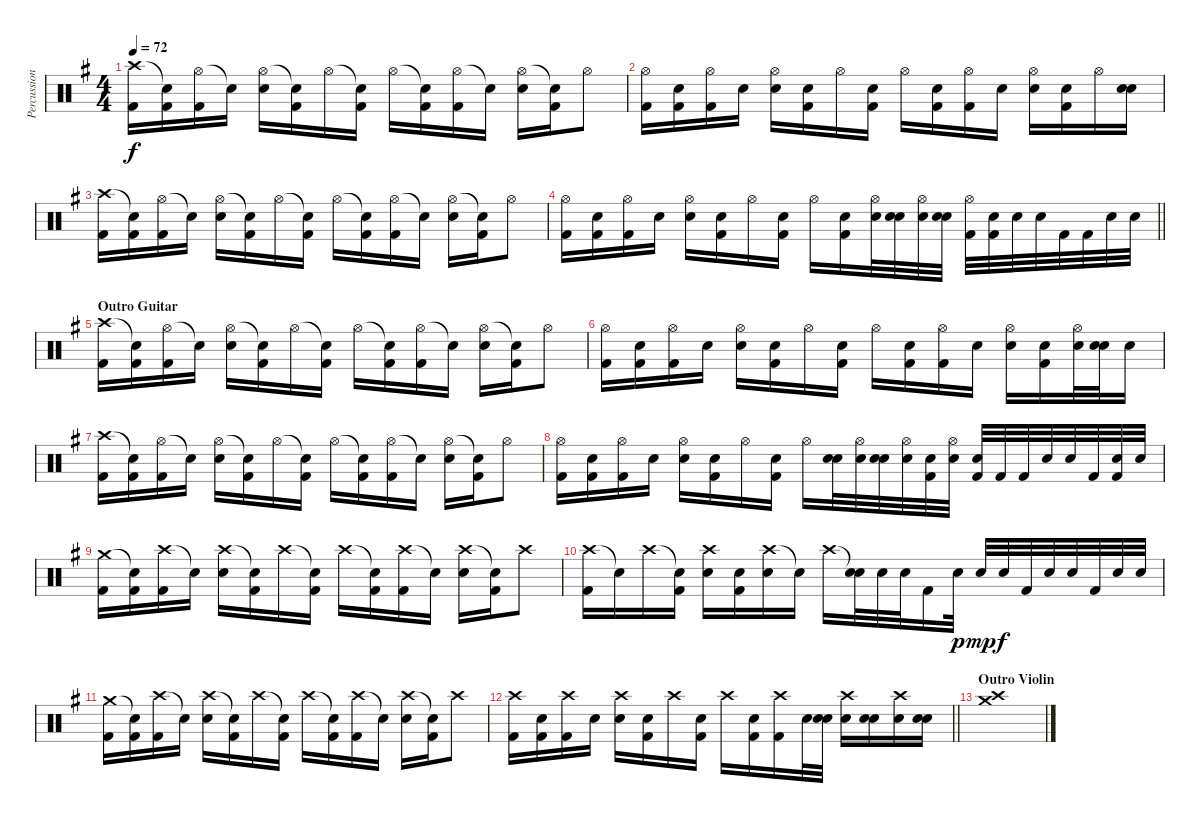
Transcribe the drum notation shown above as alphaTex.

\track ("Percussion" "Percussion") {instrument percussion}
\staff {score}
\articulation defaults
\ts (4 4)
\tempo 72
\clef neutral
\ks g
("Crash high (hit)" "Kick (hit) 2").16{dy f} ("Snare (hit)"{t} "Kick (hit) 2").16 ("Hi-Hat (open)" "Kick (hit) 2").16 "Snare (hit)"{t}.16 ("Hi-Hat (open)" "Electric Snare (hit)").16 ("Snare (hit)"{t} "Kick (hit) 2").16 "Hi-Hat (open)".16 ("Snare (hit)"{t} "Kick (hit) 2").16 "Hi-Hat (open)".16 ("Snare (hit)"{t} "Kick (hit) 2").16 ("Hi-Hat (open)" "Kick (hit) 2").16 "Snare (hit)"{t}.16 ("Hi-Hat (open)" "Electric Snare (hit)").16 ("Snare (hit)"{t} "Kick (hit) 2").16 "Hi-Hat (open)".8 |
("Hi-Hat (open)" "Kick (hit) 2").16 ("Snare (hit)" "Kick (hit) 2").16 ("Hi-Hat (open)" "Kick (hit) 2").16 "Snare (hit)".16 ("Hi-Hat (open)" "Electric Snare (hit)").16 ("Snare (hit)" "Kick (hit) 2").16 "Hi-Hat (open)".16 ("Snare (hit)" "Kick (hit) 2").16 "Hi-Hat (open)".16 ("Snare (hit)" "Kick (hit) 2").16 ("Hi-Hat (open)" "Kick (hit) 2").16 "Snare (hit)".16 ("Hi-Hat (open)" "Electric Snare (hit)").16 ("Snare (hit)" "Kick (hit) 2").16 "Hi-Hat (open)".16 ("Snare (hit)" "Electric Snare (hit)").16 |
("Crash high (hit)" "Kick (hit) 2").16 ("Snare (hit)"{t} "Kick (hit) 2").16 ("Hi-Hat (open)" "Kick (hit) 2").16 "Snare (hit)"{t}.16 ("Hi-Hat (open)" "Electric Snare (hit)").16 ("Snare (hit)"{t} "Kick (hit) 2").16 "Hi-Hat (open)".16 ("Snare (hit)"{t} "Kick (hit) 2").16 "Hi-Hat (open)".16 ("Snare (hit)"{t} "Kick (hit) 2").16 ("Hi-Hat (open)" "Kick (hit) 2").16 "Snare (hit)"{t}.16 ("Hi-Hat (open)" "Electric Snare (hit)").16 ("Snare (hit)"{t} "Kick (hit) 2").16 "Hi-Hat (open)".8 |
\barLineRight lightlight
("Hi-Hat (open)" "Kick (hit) 2").16 ("Snare (hit)" "Kick (hit) 2").16 ("Hi-Hat (open)" "Kick (hit) 2").16 "Snare (hit)".16 ("Hi-Hat (open)" "Electric Snare (hit)").16 ("Snare (hit)" "Kick (hit) 2").16 "Hi-Hat (open)".16 ("Snare (hit)" "Kick (hit) 2").16 "Hi-Hat (open)".16 ("Snare (hit)" "Kick (hit) 2").16 ("Hi-Hat (open)" "Electric Snare (hit)").32 ("Snare (hit)" "Electric Snare (hit)").32 ("Hi-Hat (open)" "Electric Snare (hit)").32 ("Snare (hit)" "Electric Snare (hit)").32 ("Hi-Hat (open)" "Kick (hit) 2").32 ("Snare (hit)" "Kick (hit) 2").32 "Electric Snare (hit)".32 "Electric Snare (hit)".32 "Kick (hit) 2".32 "Kick (hit) 2".32 "Electric Snare (hit)".32 "Electric Snare (hit)".32 |
\section ("" "Outro Guitar")
("Crash high (hit)" "Kick (hit) 2").16 ("Snare (hit)"{t} "Kick (hit) 2").16 ("Hi-Hat (open)" "Kick (hit) 2").16 "Snare (hit)"{t}.16 ("Hi-Hat (open)" "Electric Snare (hit)").16 ("Snare (hit)"{t} "Kick (hit) 2").16 "Hi-Hat (open)".16 ("Snare (hit)"{t} "Kick (hit) 2").16 "Hi-Hat (open)".16 ("Snare (hit)"{t} "Kick (hit) 2").16 ("Hi-Hat (open)" "Kick (hit) 2").16 "Snare (hit)"{t}.16 ("Hi-Hat (open)" "Electric Snare (hit)").16 ("Snare (hit)"{t} "Kick (hit) 2").16 "Hi-Hat (open)".8 |
("Hi-Hat (open)" "Kick (hit) 2").16 ("Snare (hit)" "Kick (hit) 2").16 ("Hi-Hat (open)" "Kick (hit) 2").16 "Snare (hit)".16 ("Hi-Hat (open)" "Electric Snare (hit)").16 ("Snare (hit)" "Kick (hit) 2").16 "Hi-Hat (open)".16 ("Snare (hit)" "Kick (hit) 2").16 "Hi-Hat (open)".16 ("Snare (hit)" "Kick (hit) 2").16 ("Hi-Hat (open)" "Kick (hit) 2").16 "Snare (hit)".16 ("Hi-Hat (open)" "Electric Snare (hit)").16 ("Snare (hit)" "Kick (hit) 2").16 ("Hi-Hat (open)" "Electric Snare (hit)").32 ("Snare (hit)" "Electric Snare (hit)").32 "Electric Snare (hit)".16 |
("Crash high (hit)" "Kick (hit) 2").16 ("Snare (hit)"{t} "Kick (hit) 2").16 ("Hi-Hat (open)" "Kick (hit) 2").16 "Snare (hit)"{t}.16 ("Hi-Hat (open)" "Electric Snare (hit)").16 ("Snare (hit)"{t} "Kick (hit) 2").16 "Hi-Hat (open)".16 ("Snare (hit)"{t} "Kick (hit) 2").16 "Hi-Hat (open)".16 ("Snare (hit)"{t} "Kick (hit) 2").16 ("Hi-Hat (open)" "Kick (hit) 2").16 "Snare (hit)"{t}.16 ("Hi-Hat (open)" "Electric Snare (hit)").16 ("Snare (hit)"{t} "Kick (hit) 2").16 "Hi-Hat (open)".8 |
("Hi-Hat (open)" "Kick (hit) 2").16 ("Snare (hit)" "Kick (hit) 2").16 ("Hi-Hat (open)" "Kick (hit) 2").16 "Snare (hit)".16 ("Hi-Hat (open)" "Electric Snare (hit)").16 ("Snare (hit)" "Kick (hit) 2").16 "Hi-Hat (open)".16 ("Snare (hit)" "Kick (hit) 2").16 "Hi-Hat (open)".16 ("Snare (hit)" "Electric Snare (hit)").32 ("Hi-Hat (open)" "Electric Snare (hit)").32 ("Snare (hit)" "Electric Snare (hit)").32 ("Hi-Hat (open)" "Electric Snare (hit)").32 ("Snare (hit)" "Kick (hit) 2").32 ("Hi-Hat (open)" "Electric Snare (hit)").32 ("Snare (hit)" "Kick (hit) 2").32 "Kick (hit) 2".32 "Kick (hit) 2".32 "Electric Snare (hit)".32 "Electric Snare (hit)".32 "Kick (hit) 2".32 ("Electric Snare (hit)" "Kick (hit) 2").32 "Electric Snare (hit)".32 |
("Crash medium (hit)" "Kick (hit) 2").16 ("Snare (hit)"{t} "Kick (hit) 2").16 ("Crash high (hit)" "Kick (hit) 2").16 "Snare (hit)"{t}.16 ("Crash high (hit)" "Electric Snare (hit)").16 ("Snare (hit)"{t} "Kick (hit) 2").16 "Crash high (hit)".16 ("Snare (hit)"{t} "Kick (hit) 2").16 "Crash high (hit)".16 ("Snare (hit)"{t} "Kick (hit) 2").16 ("Crash high (hit)" "Kick (hit) 2").16 "Snare (hit)"{t}.16 ("Crash high (hit)" "Electric Snare (hit)").16 ("Snare (hit)"{t} "Kick (hit) 2").16 "Crash high (hit)".8 |
("Crash high (hit)" "Kick (hit) 2").16 "Snare (hit)"{t}.16 "Crash high (hit)".16 ("Snare (hit)"{t} "Kick (hit) 2").16 ("Crash high (hit)" "Electric Snare (hit)").16 ("Snare (hit)" "Kick (hit) 2").16 ("Crash high (hit)" "Electric Snare (hit)").16 "Snare (hit)"{t}.16 "Crash high (hit)".16 ("Snare (hit)"{t} "Electric Snare (hit)").32 "Electric Snare (hit)".32 "Electric Snare (hit)".32 "Kick (hit) 2".16 "Electric Snare (hit)".32{dy p} "Electric Snare (hit)".32{dy mp} "Electric Snare (hit)".32{dy f} "Kick (hit) 2".32 "Electric Snare (hit)".32 "Electric Snare (hit)".32 "Kick (hit) 2".32 "Electric Snare (hit)".32 "Electric Snare (hit)".32 |
("Crash medium (hit)" "Kick (hit) 2").16 ("Snare (hit)"{t} "Kick (hit) 2").16 ("Crash high (hit)" "Kick (hit) 2").16 "Snare (hit)"{t}.16 ("Crash high (hit)" "Electric Snare (hit)").16 ("Snare (hit)"{t} "Kick (hit) 2").16 "Crash high (hit)".16 ("Snare (hit)"{t} "Kick (hit) 2").16 "Crash high (hit)".16 ("Snare (hit)"{t} "Kick (hit) 2").16 ("Crash high (hit)" "Kick (hit) 2").16 "Snare (hit)"{t}.16 ("Crash high (hit)" "Electric Snare (hit)").16 ("Snare (hit)"{t} "Kick (hit) 2").16 "Crash high (hit)".8 |
\barLineRight lightlight
("Crash high (hit)" "Kick (hit) 2").16 ("Snare (hit)" "Kick (hit) 2").16 ("Crash high (hit)" "Kick (hit) 2").16 "Snare (hit)".16 ("Crash high (hit)" "Electric Snare (hit)").16 ("Snare (hit)" "Kick (hit) 2").16 "Crash high (hit)".16 ("Snare (hit)" "Kick (hit) 2").16 "Crash high (hit)".16 ("Snare (hit)" "Kick (hit) 2").16 ("Crash high (hit)" "Kick (hit) 2").16 "Electric Snare (hit)".32 ("Snare (hit)" "Electric Snare (hit)").32 ("Crash high (hit)" "Electric Snare (hit)").16 ("Snare (hit)" "Electric Snare (hit)").16 ("Crash high (hit)" "Electric Snare (hit)").16 ("Snare (hit)" "Electric Snare (hit)").16 |
\section ("" "Outro Violin")
("Crash medium (hit)" "Crash high (hit)").1
